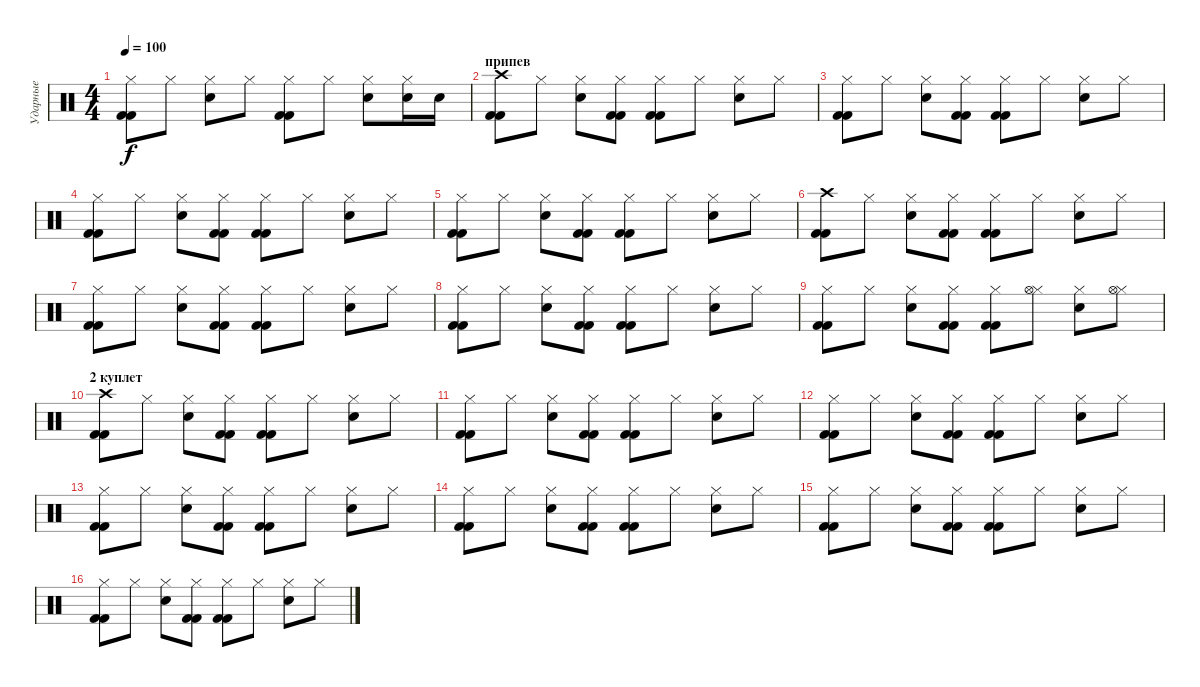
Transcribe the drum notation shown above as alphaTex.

\track ("Ударные" "Ударные") {instrument percussion}
\staff {score}
\articulation defaults
\ts (4 4)
\tempo 100
\clef neutral
\ks c
("Hi-Hat (closed)" "Kick (hit) 2" "Kick (hit) 2").8{dy f} "Hi-Hat (closed)".8 ("Hi-Hat (closed)" "Hand Clap (hit)").8 "Hi-Hat (closed)".8 ("Hi-Hat (closed)" "Kick (hit) 2" "Kick (hit) 2").8 "Hi-Hat (closed)".8 ("Hi-Hat (closed)" "Snare (hit) 2").8 ("Hi-Hat (closed)" "Snare (hit) 2").16 "Snare (hit) 2".16 |
\section ("" "припев")
("Crash high (hit)" "Kick (hit) 2" "Kick (hit) 2").8 "Hi-Hat (closed)".8 ("Hi-Hat (closed)" "Snare (hit) 2").8 ("Hi-Hat (closed)" "Kick (hit) 2" "Kick (hit) 2").8 ("Hi-Hat (closed)" "Kick (hit) 2" "Kick (hit) 2").8 "Hi-Hat (closed)".8 ("Hi-Hat (closed)" "Snare (hit) 2").8 "Hi-Hat (closed)".8 |
("Hi-Hat (closed)" "Kick (hit) 2" "Kick (hit) 2").8 "Hi-Hat (closed)".8 ("Hi-Hat (closed)" "Snare (hit) 2").8 ("Hi-Hat (closed)" "Kick (hit) 2" "Kick (hit) 2").8 ("Hi-Hat (closed)" "Kick (hit) 2" "Kick (hit) 2").8 "Hi-Hat (closed)".8 ("Hi-Hat (closed)" "Snare (hit) 2").8 "Hi-Hat (closed)".8 |
("Hi-Hat (closed)" "Kick (hit) 2" "Kick (hit) 2").8 "Hi-Hat (closed)".8 ("Hi-Hat (closed)" "Snare (hit) 2").8 ("Hi-Hat (closed)" "Kick (hit) 2" "Kick (hit) 2").8 ("Hi-Hat (closed)" "Kick (hit) 2" "Kick (hit) 2").8 "Hi-Hat (closed)".8 ("Hi-Hat (closed)" "Snare (hit) 2").8 "Hi-Hat (closed)".8 |
("Hi-Hat (closed)" "Kick (hit) 2" "Kick (hit) 2").8 "Hi-Hat (closed)".8 ("Hi-Hat (closed)" "Snare (hit) 2").8 ("Hi-Hat (closed)" "Kick (hit) 2" "Kick (hit) 2").8 ("Hi-Hat (closed)" "Kick (hit) 2" "Kick (hit) 2").8 "Hi-Hat (closed)".8 ("Hi-Hat (closed)" "Snare (hit) 2").8 "Hi-Hat (closed)".8 |
("Crash high (hit)" "Kick (hit) 2" "Kick (hit) 2").8 "Hi-Hat (closed)".8 ("Hi-Hat (closed)" "Hand Clap (hit)").8 ("Hi-Hat (closed)" "Kick (hit) 2" "Kick (hit) 2").8 ("Hi-Hat (closed)" "Kick (hit) 2" "Kick (hit) 2").8 "Hi-Hat (closed)".8 ("Hi-Hat (closed)" "Hand Clap (hit)").8 "Hi-Hat (closed)".8 |
("Hi-Hat (closed)" "Kick (hit) 2" "Kick (hit) 2").8 "Hi-Hat (closed)".8 ("Hi-Hat (closed)" "Hand Clap (hit)").8 ("Hi-Hat (closed)" "Kick (hit) 2" "Kick (hit) 2").8 ("Hi-Hat (closed)" "Kick (hit) 2" "Kick (hit) 2").8 "Hi-Hat (closed)".8 ("Hi-Hat (closed)" "Hand Clap (hit)").8 "Hi-Hat (closed)".8 |
("Hi-Hat (closed)" "Kick (hit) 2" "Kick (hit) 2").8 "Hi-Hat (closed)".8 ("Hi-Hat (closed)" "Hand Clap (hit)").8 ("Hi-Hat (closed)" "Kick (hit) 2" "Kick (hit) 2").8 ("Hi-Hat (closed)" "Kick (hit) 2" "Kick (hit) 2").8 "Hi-Hat (closed)".8 ("Hi-Hat (closed)" "Hand Clap (hit)").8 "Hi-Hat (closed)".8 |
("Hi-Hat (closed)" "Kick (hit) 2" "Kick (hit) 2").8 "Hi-Hat (closed)".8 ("Hi-Hat (closed)" "Hand Clap (hit)").8 ("Hi-Hat (closed)" "Kick (hit) 2" "Kick (hit) 2").8 ("Hi-Hat (closed)" "Kick (hit) 2" "Kick (hit) 2").8 ("Hi-Hat (closed)" "Hi-Hat (open)").8 ("Hi-Hat (closed)" "Hand Clap (hit)").8 ("Hi-Hat (closed)" "Hi-Hat (open)").8 |
\section ("" "2 куплет")
("Crash high (hit)" "Kick (hit) 2" "Kick (hit) 2").8 "Hi-Hat (closed)".8 ("Hi-Hat (closed)" "Hand Clap (hit)").8 ("Hi-Hat (closed)" "Kick (hit) 2" "Kick (hit) 2").8 ("Hi-Hat (closed)" "Kick (hit) 2" "Kick (hit) 2").8 "Hi-Hat (closed)".8 ("Hi-Hat (closed)" "Hand Clap (hit)").8 "Hi-Hat (closed)".8 |
("Hi-Hat (closed)" "Kick (hit) 2" "Kick (hit) 2").8 "Hi-Hat (closed)".8 ("Hi-Hat (closed)" "Hand Clap (hit)").8 ("Hi-Hat (closed)" "Kick (hit) 2" "Kick (hit) 2").8 ("Hi-Hat (closed)" "Kick (hit) 2" "Kick (hit) 2").8 "Hi-Hat (closed)".8 ("Hi-Hat (closed)" "Hand Clap (hit)").8 "Hi-Hat (closed)".8 |
("Hi-Hat (closed)" "Kick (hit) 2" "Kick (hit) 2").8 "Hi-Hat (closed)".8 ("Hi-Hat (closed)" "Hand Clap (hit)").8 ("Hi-Hat (closed)" "Kick (hit) 2" "Kick (hit) 2").8 ("Hi-Hat (closed)" "Kick (hit) 2" "Kick (hit) 2").8 "Hi-Hat (closed)".8 ("Hi-Hat (closed)" "Hand Clap (hit)").8 "Hi-Hat (closed)".8 |
("Hi-Hat (closed)" "Kick (hit) 2" "Kick (hit) 2").8 "Hi-Hat (closed)".8 ("Hi-Hat (closed)" "Hand Clap (hit)").8 ("Hi-Hat (closed)" "Kick (hit) 2" "Kick (hit) 2").8 ("Hi-Hat (closed)" "Kick (hit) 2" "Kick (hit) 2").8 "Hi-Hat (closed)".8 ("Hi-Hat (closed)" "Hand Clap (hit)").8 "Hi-Hat (closed)".8 |
("Hi-Hat (closed)" "Kick (hit) 2" "Kick (hit) 2").8 "Hi-Hat (closed)".8 ("Hi-Hat (closed)" "Hand Clap (hit)").8 ("Hi-Hat (closed)" "Kick (hit) 2" "Kick (hit) 2").8 ("Hi-Hat (closed)" "Kick (hit) 2" "Kick (hit) 2").8 "Hi-Hat (closed)".8 ("Hi-Hat (closed)" "Hand Clap (hit)").8 "Hi-Hat (closed)".8 |
("Hi-Hat (closed)" "Kick (hit) 2" "Kick (hit) 2").8 "Hi-Hat (closed)".8 ("Hi-Hat (closed)" "Hand Clap (hit)").8 ("Hi-Hat (closed)" "Kick (hit) 2" "Kick (hit) 2").8 ("Hi-Hat (closed)" "Kick (hit) 2" "Kick (hit) 2").8 "Hi-Hat (closed)".8 ("Hi-Hat (closed)" "Hand Clap (hit)").8 "Hi-Hat (closed)".8 |
("Hi-Hat (closed)" "Kick (hit) 2" "Kick (hit) 2").8 "Hi-Hat (closed)".8 ("Hi-Hat (closed)" "Hand Clap (hit)").8 ("Hi-Hat (closed)" "Kick (hit) 2" "Kick (hit) 2").8 ("Hi-Hat (closed)" "Kick (hit) 2" "Kick (hit) 2").8 "Hi-Hat (closed)".8 ("Hi-Hat (closed)" "Hand Clap (hit)").8 "Hi-Hat (closed)".8
